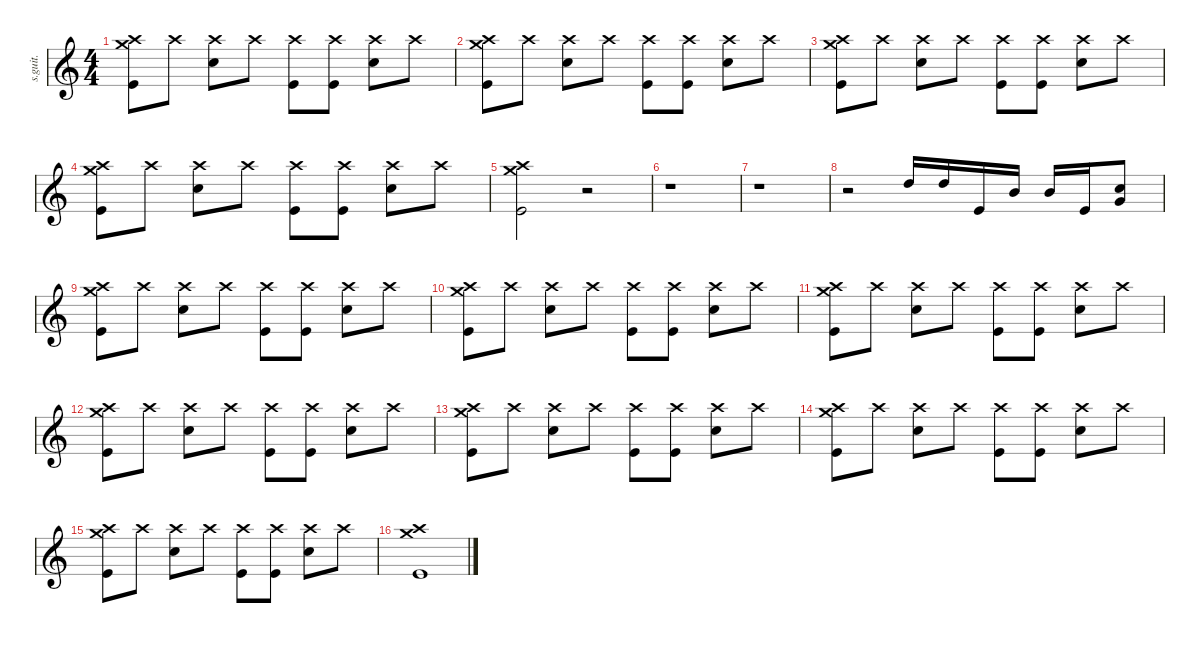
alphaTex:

\defaultSystemsLayout 4
\hideDynamics
\bracketExtendMode nobrackets
\track ("Drumkit" "s.guit.") {instrument percussion}
\staff {score}
\articulation defaults
\ts (4 4)
\tempo (65 hide)
\clef g2
\ks c
("Crash high (hit)" "Crash medium (hit)" "Kick (hit)").8{lyrics (0 "") lyrics (1 "") lyrics (2 "") lyrics (3 "") lyrics (4 "") dy mf} "Crash high (hit)".8{lyrics (0 "") lyrics (1 "") lyrics (2 "") lyrics (3 "") lyrics (4 "")} ("Crash high (hit)" "Snare (hit) 2").8{lyrics (0 "") lyrics (1 "") lyrics (2 "") lyrics (3 "") lyrics (4 "")} "Crash high (hit)".8{lyrics (0 "") lyrics (1 "") lyrics (2 "") lyrics (3 "") lyrics (4 "")} ("Crash high (hit)" "Kick (hit)").8{lyrics (0 "") lyrics (1 "") lyrics (2 "") lyrics (3 "") lyrics (4 "")} ("Crash high (hit)" "Kick (hit)").8{lyrics (0 "") lyrics (1 "") lyrics (2 "") lyrics (3 "") lyrics (4 "")} ("Crash high (hit)" "Snare (hit) 2").8{lyrics (0 "") lyrics (1 "") lyrics (2 "") lyrics (3 "") lyrics (4 "")} "Crash high (hit)".8{lyrics (0 "") lyrics (1 "") lyrics (2 "") lyrics (3 "") lyrics (4 "")} |
("Crash high (hit)" "Crash medium (hit)" "Kick (hit)").8{lyrics (0 "") lyrics (1 "") lyrics (2 "") lyrics (3 "") lyrics (4 "")} "Crash high (hit)".8{lyrics (0 "") lyrics (1 "") lyrics (2 "") lyrics (3 "") lyrics (4 "")} ("Crash high (hit)" "Snare (hit) 2").8{lyrics (0 "") lyrics (1 "") lyrics (2 "") lyrics (3 "") lyrics (4 "")} "Crash high (hit)".8{lyrics (0 "") lyrics (1 "") lyrics (2 "") lyrics (3 "") lyrics (4 "")} ("Crash high (hit)" "Kick (hit)").8{lyrics (0 "") lyrics (1 "") lyrics (2 "") lyrics (3 "") lyrics (4 "")} ("Crash high (hit)" "Kick (hit)").8{lyrics (0 "") lyrics (1 "") lyrics (2 "") lyrics (3 "") lyrics (4 "")} ("Crash high (hit)" "Snare (hit) 2").8{lyrics (0 "") lyrics (1 "") lyrics (2 "") lyrics (3 "") lyrics (4 "")} "Crash high (hit)".8{lyrics (0 "") lyrics (1 "") lyrics (2 "") lyrics (3 "") lyrics (4 "")} |
("Crash high (hit)" "Crash medium (hit)" "Kick (hit)").8{lyrics (0 "") lyrics (1 "") lyrics (2 "") lyrics (3 "") lyrics (4 "")} "Crash high (hit)".8{lyrics (0 "") lyrics (1 "") lyrics (2 "") lyrics (3 "") lyrics (4 "")} ("Crash high (hit)" "Snare (hit) 2").8{lyrics (0 "") lyrics (1 "") lyrics (2 "") lyrics (3 "") lyrics (4 "")} "Crash high (hit)".8{lyrics (0 "") lyrics (1 "") lyrics (2 "") lyrics (3 "") lyrics (4 "")} ("Crash high (hit)" "Kick (hit)").8{lyrics (0 "") lyrics (1 "") lyrics (2 "") lyrics (3 "") lyrics (4 "")} ("Crash high (hit)" "Kick (hit)").8{lyrics (0 "") lyrics (1 "") lyrics (2 "") lyrics (3 "") lyrics (4 "")} ("Crash high (hit)" "Snare (hit) 2").8{lyrics (0 "") lyrics (1 "") lyrics (2 "") lyrics (3 "") lyrics (4 "")} "Crash high (hit)".8{lyrics (0 "") lyrics (1 "") lyrics (2 "") lyrics (3 "") lyrics (4 "")} |
("Crash high (hit)" "Crash medium (hit)" "Kick (hit)").8{lyrics (0 "") lyrics (1 "") lyrics (2 "") lyrics (3 "") lyrics (4 "")} "Crash high (hit)".8{lyrics (0 "") lyrics (1 "") lyrics (2 "") lyrics (3 "") lyrics (4 "")} ("Crash high (hit)" "Snare (hit) 2").8{lyrics (0 "") lyrics (1 "") lyrics (2 "") lyrics (3 "") lyrics (4 "")} "Crash high (hit)".8{lyrics (0 "") lyrics (1 "") lyrics (2 "") lyrics (3 "") lyrics (4 "")} ("Crash high (hit)" "Kick (hit)").8{lyrics (0 "") lyrics (1 "") lyrics (2 "") lyrics (3 "") lyrics (4 "")} ("Crash high (hit)" "Kick (hit)").8{lyrics (0 "") lyrics (1 "") lyrics (2 "") lyrics (3 "") lyrics (4 "")} ("Crash high (hit)" "Snare (hit) 2").8{lyrics (0 "") lyrics (1 "") lyrics (2 "") lyrics (3 "") lyrics (4 "")} "Crash high (hit)".8{lyrics (0 "") lyrics (1 "") lyrics (2 "") lyrics (3 "") lyrics (4 "")} |
("Crash high (hit)" "Crash medium (hit)" "Kick (hit)").2{lyrics (0 "") lyrics (1 "") lyrics (2 "") lyrics (3 "") lyrics (4 "")} r.2 |
r.1 |
r.1 |
r.2 "High Tom (hit)".16{lyrics (0 "") lyrics (1 "") lyrics (2 "") lyrics (3 "") lyrics (4 "")} "High Tom (hit)".16{lyrics (0 "") lyrics (1 "") lyrics (2 "") lyrics (3 "") lyrics (4 "")} "Kick (hit)".16{lyrics (0 "") lyrics (1 "") lyrics (2 "") lyrics (3 "") lyrics (4 "")} "Mid Tom (hit)".16{lyrics (0 "") lyrics (1 "") lyrics (2 "") lyrics (3 "") lyrics (4 "")} "Mid Tom (hit)".16{lyrics (0 "") lyrics (1 "") lyrics (2 "") lyrics (3 "") lyrics (4 "")} "Kick (hit)".16{lyrics (0 "") lyrics (1 "") lyrics (2 "") lyrics (3 "") lyrics (4 "")} ("Very Low Tom (hit)" "Snare (hit) 2").8{lyrics (0 "") lyrics (1 "") lyrics (2 "") lyrics (3 "") lyrics (4 "")} |
("Crash high (hit)" "Crash medium (hit)" "Kick (hit)").8{lyrics (0 "") lyrics (1 "") lyrics (2 "") lyrics (3 "") lyrics (4 "")} "Crash high (hit)".8{lyrics (0 "") lyrics (1 "") lyrics (2 "") lyrics (3 "") lyrics (4 "")} ("Crash high (hit)" "Snare (hit) 2").8{lyrics (0 "") lyrics (1 "") lyrics (2 "") lyrics (3 "") lyrics (4 "")} "Crash high (hit)".8{lyrics (0 "") lyrics (1 "") lyrics (2 "") lyrics (3 "") lyrics (4 "")} ("Crash high (hit)" "Kick (hit)").8{lyrics (0 "") lyrics (1 "") lyrics (2 "") lyrics (3 "") lyrics (4 "")} ("Crash high (hit)" "Kick (hit)").8{lyrics (0 "") lyrics (1 "") lyrics (2 "") lyrics (3 "") lyrics (4 "")} ("Crash high (hit)" "Snare (hit) 2").8{lyrics (0 "") lyrics (1 "") lyrics (2 "") lyrics (3 "") lyrics (4 "")} "Crash high (hit)".8{lyrics (0 "") lyrics (1 "") lyrics (2 "") lyrics (3 "") lyrics (4 "")} |
("Crash high (hit)" "Crash medium (hit)" "Kick (hit)").8{lyrics (0 "") lyrics (1 "") lyrics (2 "") lyrics (3 "") lyrics (4 "")} "Crash high (hit)".8{lyrics (0 "") lyrics (1 "") lyrics (2 "") lyrics (3 "") lyrics (4 "")} ("Crash high (hit)" "Snare (hit) 2").8{lyrics (0 "") lyrics (1 "") lyrics (2 "") lyrics (3 "") lyrics (4 "")} "Crash high (hit)".8{lyrics (0 "") lyrics (1 "") lyrics (2 "") lyrics (3 "") lyrics (4 "")} ("Crash high (hit)" "Kick (hit)").8{lyrics (0 "") lyrics (1 "") lyrics (2 "") lyrics (3 "") lyrics (4 "")} ("Crash high (hit)" "Kick (hit)").8{lyrics (0 "") lyrics (1 "") lyrics (2 "") lyrics (3 "") lyrics (4 "")} ("Crash high (hit)" "Snare (hit) 2").8{lyrics (0 "") lyrics (1 "") lyrics (2 "") lyrics (3 "") lyrics (4 "")} "Crash high (hit)".8{lyrics (0 "") lyrics (1 "") lyrics (2 "") lyrics (3 "") lyrics (4 "")} |
("Crash high (hit)" "Crash medium (hit)" "Kick (hit)").8{lyrics (0 "") lyrics (1 "") lyrics (2 "") lyrics (3 "") lyrics (4 "")} "Crash high (hit)".8{lyrics (0 "") lyrics (1 "") lyrics (2 "") lyrics (3 "") lyrics (4 "")} ("Crash high (hit)" "Snare (hit) 2").8{lyrics (0 "") lyrics (1 "") lyrics (2 "") lyrics (3 "") lyrics (4 "")} "Crash high (hit)".8{lyrics (0 "") lyrics (1 "") lyrics (2 "") lyrics (3 "") lyrics (4 "")} ("Crash high (hit)" "Kick (hit)").8{lyrics (0 "") lyrics (1 "") lyrics (2 "") lyrics (3 "") lyrics (4 "")} ("Crash high (hit)" "Kick (hit)").8{lyrics (0 "") lyrics (1 "") lyrics (2 "") lyrics (3 "") lyrics (4 "")} ("Crash high (hit)" "Snare (hit) 2").8{lyrics (0 "") lyrics (1 "") lyrics (2 "") lyrics (3 "") lyrics (4 "")} "Crash high (hit)".8{lyrics (0 "") lyrics (1 "") lyrics (2 "") lyrics (3 "") lyrics (4 "")} |
("Crash high (hit)" "Crash medium (hit)" "Kick (hit)").8{lyrics (0 "") lyrics (1 "") lyrics (2 "") lyrics (3 "") lyrics (4 "")} "Crash high (hit)".8{lyrics (0 "") lyrics (1 "") lyrics (2 "") lyrics (3 "") lyrics (4 "")} ("Crash high (hit)" "Snare (hit) 2").8{lyrics (0 "") lyrics (1 "") lyrics (2 "") lyrics (3 "") lyrics (4 "")} "Crash high (hit)".8{lyrics (0 "") lyrics (1 "") lyrics (2 "") lyrics (3 "") lyrics (4 "")} ("Crash high (hit)" "Kick (hit)").8{lyrics (0 "") lyrics (1 "") lyrics (2 "") lyrics (3 "") lyrics (4 "")} ("Crash high (hit)" "Kick (hit)").8{lyrics (0 "") lyrics (1 "") lyrics (2 "") lyrics (3 "") lyrics (4 "")} ("Crash high (hit)" "Snare (hit) 2").8{lyrics (0 "") lyrics (1 "") lyrics (2 "") lyrics (3 "") lyrics (4 "")} "Crash high (hit)".8{lyrics (0 "") lyrics (1 "") lyrics (2 "") lyrics (3 "") lyrics (4 "")} |
("Crash high (hit)" "Crash medium (hit)" "Kick (hit)").8{lyrics (0 "") lyrics (1 "") lyrics (2 "") lyrics (3 "") lyrics (4 "")} "Crash high (hit)".8{lyrics (0 "") lyrics (1 "") lyrics (2 "") lyrics (3 "") lyrics (4 "")} ("Crash high (hit)" "Snare (hit) 2").8{lyrics (0 "") lyrics (1 "") lyrics (2 "") lyrics (3 "") lyrics (4 "")} "Crash high (hit)".8{lyrics (0 "") lyrics (1 "") lyrics (2 "") lyrics (3 "") lyrics (4 "")} ("Crash high (hit)" "Kick (hit)").8{lyrics (0 "") lyrics (1 "") lyrics (2 "") lyrics (3 "") lyrics (4 "")} ("Crash high (hit)" "Kick (hit)").8{lyrics (0 "") lyrics (1 "") lyrics (2 "") lyrics (3 "") lyrics (4 "")} ("Crash high (hit)" "Snare (hit) 2").8{lyrics (0 "") lyrics (1 "") lyrics (2 "") lyrics (3 "") lyrics (4 "")} "Crash high (hit)".8{lyrics (0 "") lyrics (1 "") lyrics (2 "") lyrics (3 "") lyrics (4 "")} |
("Crash high (hit)" "Crash medium (hit)" "Kick (hit)").8{lyrics (0 "") lyrics (1 "") lyrics (2 "") lyrics (3 "") lyrics (4 "")} "Crash high (hit)".8{lyrics (0 "") lyrics (1 "") lyrics (2 "") lyrics (3 "") lyrics (4 "")} ("Crash high (hit)" "Snare (hit) 2").8{lyrics (0 "") lyrics (1 "") lyrics (2 "") lyrics (3 "") lyrics (4 "")} "Crash high (hit)".8{lyrics (0 "") lyrics (1 "") lyrics (2 "") lyrics (3 "") lyrics (4 "")} ("Crash high (hit)" "Kick (hit)").8{lyrics (0 "") lyrics (1 "") lyrics (2 "") lyrics (3 "") lyrics (4 "")} ("Crash high (hit)" "Kick (hit)").8{lyrics (0 "") lyrics (1 "") lyrics (2 "") lyrics (3 "") lyrics (4 "")} ("Crash high (hit)" "Snare (hit) 2").8{lyrics (0 "") lyrics (1 "") lyrics (2 "") lyrics (3 "") lyrics (4 "")} "Crash high (hit)".8{lyrics (0 "") lyrics (1 "") lyrics (2 "") lyrics (3 "") lyrics (4 "")} |
("Crash high (hit)" "Crash medium (hit)" "Kick (hit)").8{lyrics (0 "") lyrics (1 "") lyrics (2 "") lyrics (3 "") lyrics (4 "")} "Crash high (hit)".8{lyrics (0 "") lyrics (1 "") lyrics (2 "") lyrics (3 "") lyrics (4 "")} ("Crash high (hit)" "Snare (hit) 2").8{lyrics (0 "") lyrics (1 "") lyrics (2 "") lyrics (3 "") lyrics (4 "")} "Crash high (hit)".8{lyrics (0 "") lyrics (1 "") lyrics (2 "") lyrics (3 "") lyrics (4 "")} ("Crash high (hit)" "Kick (hit)").8{lyrics (0 "") lyrics (1 "") lyrics (2 "") lyrics (3 "") lyrics (4 "")} ("Crash high (hit)" "Kick (hit)").8{lyrics (0 "") lyrics (1 "") lyrics (2 "") lyrics (3 "") lyrics (4 "")} ("Crash high (hit)" "Snare (hit) 2").8{lyrics (0 "") lyrics (1 "") lyrics (2 "") lyrics (3 "") lyrics (4 "")} "Crash high (hit)".8{lyrics (0 "") lyrics (1 "") lyrics (2 "") lyrics (3 "") lyrics (4 "")} |
("Kick (hit)" "Crash medium (hit)" "Crash high (hit)").1{lyrics (0 "") lyrics (1 "") lyrics (2 "") lyrics (3 "") lyrics (4 "")}
